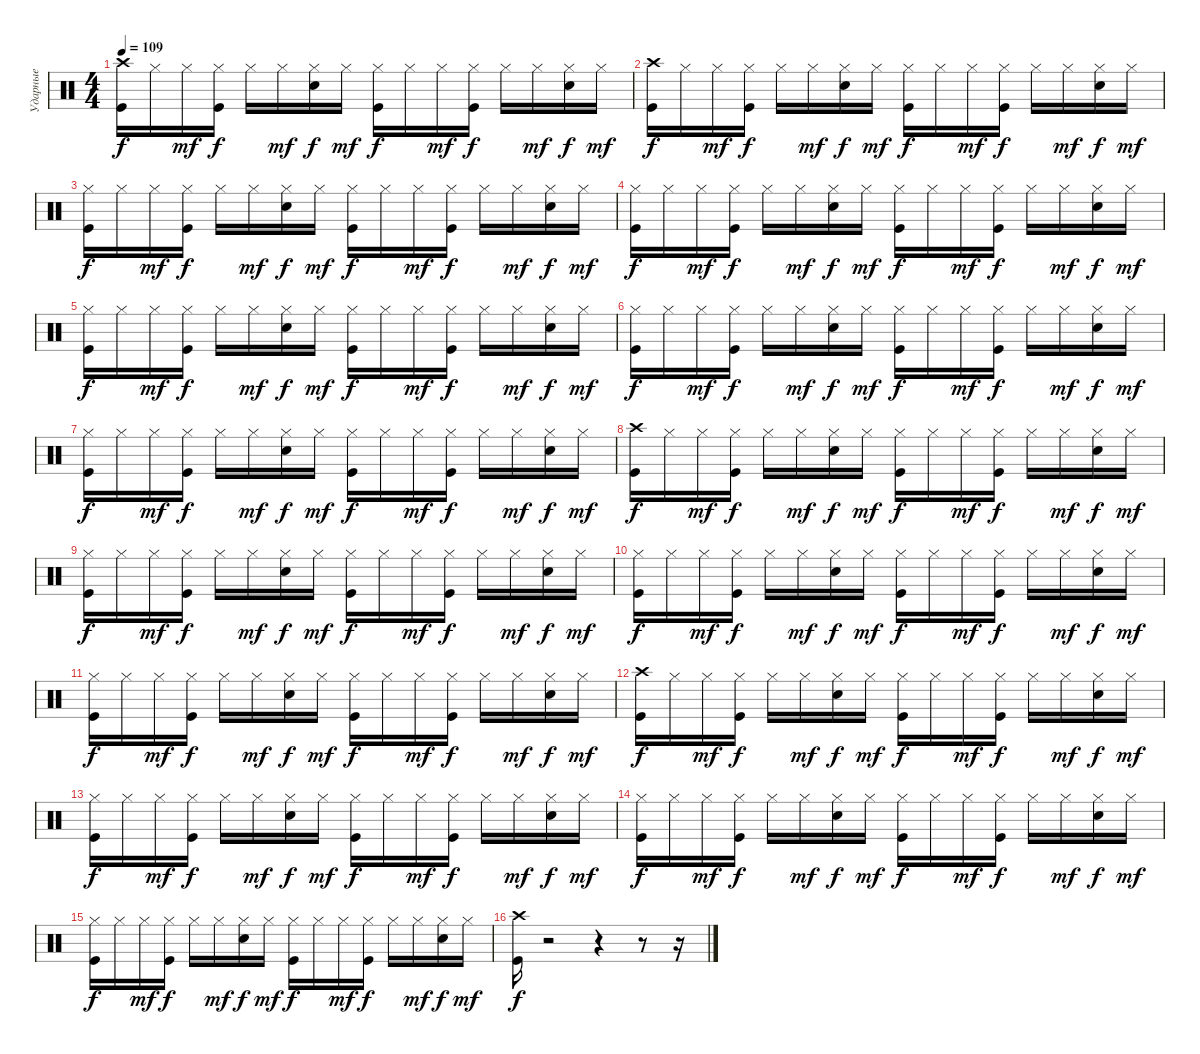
\track ("Ударные" "Ударные") {instrument percussion}
\staff {score}
\articulation defaults
\ts (4 4)
\tempo 109
\clef neutral
\ks c
("Kick (hit)" "Crash high (hit)").16{dy f} "Hi-Hat (closed)".16 "Hi-Hat (closed)".16{dy mf} ("Kick (hit)" "Hi-Hat (closed)").16{dy f} "Hi-Hat (closed)".16 "Hi-Hat (closed)".16{dy mf} ("Electric Snare (hit)" "Hi-Hat (closed)").16{dy f} "Hi-Hat (closed)".16{dy mf} ("Hi-Hat (closed)" "Kick (hit)").16{dy f} "Hi-Hat (closed)".16 "Hi-Hat (closed)".16{dy mf} ("Kick (hit)" "Hi-Hat (closed)").16{dy f} "Hi-Hat (closed)".16 "Hi-Hat (closed)".16{dy mf} ("Hi-Hat (closed)" "Electric Snare (hit)").16{dy f} "Hi-Hat (closed)".16{dy mf} |
("Kick (hit)" "Crash high (hit)").16{dy f} "Hi-Hat (closed)".16 "Hi-Hat (closed)".16{dy mf} ("Kick (hit)" "Hi-Hat (closed)").16{dy f} "Hi-Hat (closed)".16 "Hi-Hat (closed)".16{dy mf} ("Electric Snare (hit)" "Hi-Hat (closed)").16{dy f} "Hi-Hat (closed)".16{dy mf} ("Kick (hit)" "Hi-Hat (closed)").16{dy f} "Hi-Hat (closed)".16 "Hi-Hat (closed)".16{dy mf} ("Kick (hit)" "Hi-Hat (closed)").16{dy f} "Hi-Hat (closed)".16 "Hi-Hat (closed)".16{dy mf} ("Electric Snare (hit)" "Hi-Hat (closed)").16{dy f} "Hi-Hat (closed)".16{dy mf} |
("Kick (hit)" "Hi-Hat (closed)").16{dy f} "Hi-Hat (closed)".16 "Hi-Hat (closed)".16{dy mf} ("Hi-Hat (closed)" "Kick (hit)").16{dy f} "Hi-Hat (closed)".16 "Hi-Hat (closed)".16{dy mf} ("Electric Snare (hit)" "Hi-Hat (closed)").16{dy f} "Hi-Hat (closed)".16{dy mf} ("Kick (hit)" "Hi-Hat (closed)").16{dy f} "Hi-Hat (closed)".16 "Hi-Hat (closed)".16{dy mf} ("Kick (hit)" "Hi-Hat (closed)").16{dy f} "Hi-Hat (closed)".16 "Hi-Hat (closed)".16{dy mf} ("Electric Snare (hit)" "Hi-Hat (closed)").16{dy f} "Hi-Hat (closed)".16{dy mf} |
("Kick (hit)" "Hi-Hat (closed)").16{dy f} "Hi-Hat (closed)".16 "Hi-Hat (closed)".16{dy mf} ("Hi-Hat (closed)" "Kick (hit)").16{dy f} "Hi-Hat (closed)".16 "Hi-Hat (closed)".16{dy mf} ("Hi-Hat (closed)" "Electric Snare (hit)").16{dy f} "Hi-Hat (closed)".16{dy mf} ("Hi-Hat (closed)" "Kick (hit)").16{dy f} "Hi-Hat (closed)".16 "Hi-Hat (closed)".16{dy mf} ("Hi-Hat (closed)" "Kick (hit)").16{dy f} "Hi-Hat (closed)".16 "Hi-Hat (closed)".16{dy mf} ("Electric Snare (hit)" "Hi-Hat (closed)").16{dy f} "Hi-Hat (closed)".16{dy mf} |
("Kick (hit)" "Hi-Hat (closed)").16{dy f} "Hi-Hat (closed)".16 "Hi-Hat (closed)".16{dy mf} ("Kick (hit)" "Hi-Hat (closed)").16{dy f} "Hi-Hat (closed)".16 "Hi-Hat (closed)".16{dy mf} ("Hi-Hat (closed)" "Electric Snare (hit)").16{dy f} "Hi-Hat (closed)".16{dy mf} ("Kick (hit)" "Hi-Hat (closed)").16{dy f} "Hi-Hat (closed)".16 "Hi-Hat (closed)".16{dy mf} ("Kick (hit)" "Hi-Hat (closed)").16{dy f} "Hi-Hat (closed)".16 "Hi-Hat (closed)".16{dy mf} ("Electric Snare (hit)" "Hi-Hat (closed)").16{dy f} "Hi-Hat (closed)".16{dy mf} |
("Hi-Hat (closed)" "Kick (hit)").16{dy f} "Hi-Hat (closed)".16 "Hi-Hat (closed)".16{dy mf} ("Kick (hit)" "Hi-Hat (closed)").16{dy f} "Hi-Hat (closed)".16 "Hi-Hat (closed)".16{dy mf} ("Electric Snare (hit)" "Hi-Hat (closed)").16{dy f} "Hi-Hat (closed)".16{dy mf} ("Hi-Hat (closed)" "Kick (hit)").16{dy f} "Hi-Hat (closed)".16 "Hi-Hat (closed)".16{dy mf} ("Kick (hit)" "Hi-Hat (closed)").16{dy f} "Hi-Hat (closed)".16 "Hi-Hat (closed)".16{dy mf} ("Hi-Hat (closed)" "Electric Snare (hit)").16{dy f} "Hi-Hat (closed)".16{dy mf} |
("Hi-Hat (closed)" "Kick (hit)").16{dy f} "Hi-Hat (closed)".16 "Hi-Hat (closed)".16{dy mf} ("Kick (hit)" "Hi-Hat (closed)").16{dy f} "Hi-Hat (closed)".16 "Hi-Hat (closed)".16{dy mf} ("Hi-Hat (closed)" "Electric Snare (hit)").16{dy f} "Hi-Hat (closed)".16{dy mf} ("Kick (hit)" "Hi-Hat (closed)").16{dy f} "Hi-Hat (closed)".16 "Hi-Hat (closed)".16{dy mf} ("Kick (hit)" "Hi-Hat (closed)").16{dy f} "Hi-Hat (closed)".16 "Hi-Hat (closed)".16{dy mf} ("Electric Snare (hit)" "Hi-Hat (closed)").16{dy f} "Hi-Hat (closed)".16{dy mf} |
("Crash high (hit)" "Kick (hit)").16{dy f} "Hi-Hat (closed)".16 "Hi-Hat (closed)".16{dy mf} ("Kick (hit)" "Hi-Hat (closed)").16{dy f} "Hi-Hat (closed)".16 "Hi-Hat (closed)".16{dy mf} ("Hi-Hat (closed)" "Electric Snare (hit)").16{dy f} "Hi-Hat (closed)".16{dy mf} ("Kick (hit)" "Hi-Hat (closed)").16{dy f} "Hi-Hat (closed)".16 "Hi-Hat (closed)".16{dy mf} ("Hi-Hat (closed)" "Kick (hit)").16{dy f} "Hi-Hat (closed)".16 "Hi-Hat (closed)".16{dy mf} ("Electric Snare (hit)" "Hi-Hat (closed)").16{dy f} "Hi-Hat (closed)".16{dy mf} |
("Hi-Hat (closed)" "Kick (hit)").16{dy f} "Hi-Hat (closed)".16 "Hi-Hat (closed)".16{dy mf} ("Kick (hit)" "Hi-Hat (closed)").16{dy f} "Hi-Hat (closed)".16 "Hi-Hat (closed)".16{dy mf} ("Hi-Hat (closed)" "Electric Snare (hit)").16{dy f} "Hi-Hat (closed)".16{dy mf} ("Kick (hit)" "Hi-Hat (closed)").16{dy f} "Hi-Hat (closed)".16 "Hi-Hat (closed)".16{dy mf} ("Hi-Hat (closed)" "Kick (hit)").16{dy f} "Hi-Hat (closed)".16 "Hi-Hat (closed)".16{dy mf} ("Hi-Hat (closed)" "Electric Snare (hit)").16{dy f} "Hi-Hat (closed)".16{dy mf} |
("Hi-Hat (closed)" "Kick (hit)").16{dy f} "Hi-Hat (closed)".16 "Hi-Hat (closed)".16{dy mf} ("Kick (hit)" "Hi-Hat (closed)").16{dy f} "Hi-Hat (closed)".16 "Hi-Hat (closed)".16{dy mf} ("Hi-Hat (closed)" "Electric Snare (hit)").16{dy f} "Hi-Hat (closed)".16{dy mf} ("Hi-Hat (closed)" "Kick (hit)").16{dy f} "Hi-Hat (closed)".16 "Hi-Hat (closed)".16{dy mf} ("Kick (hit)" "Hi-Hat (closed)").16{dy f} "Hi-Hat (closed)".16 "Hi-Hat (closed)".16{dy mf} ("Hi-Hat (closed)" "Electric Snare (hit)").16{dy f} "Hi-Hat (closed)".16{dy mf} |
("Hi-Hat (closed)" "Kick (hit)").16{dy f} "Hi-Hat (closed)".16 "Hi-Hat (closed)".16{dy mf} ("Hi-Hat (closed)" "Kick (hit)").16{dy f} "Hi-Hat (closed)".16 "Hi-Hat (closed)".16{dy mf} ("Hi-Hat (closed)" "Electric Snare (hit)").16{dy f} "Hi-Hat (closed)".16{dy mf} ("Hi-Hat (closed)" "Kick (hit)").16{dy f} "Hi-Hat (closed)".16 "Hi-Hat (closed)".16{dy mf} ("Kick (hit)" "Hi-Hat (closed)").16{dy f} "Hi-Hat (closed)".16 "Hi-Hat (closed)".16{dy mf} ("Hi-Hat (closed)" "Electric Snare (hit)").16{dy f} "Hi-Hat (closed)".16{dy mf} |
("Crash high (hit)" "Kick (hit)").16{dy f} "Hi-Hat (closed)".16 "Hi-Hat (closed)".16{dy mf} ("Hi-Hat (closed)" "Kick (hit)").16{dy f} "Hi-Hat (closed)".16 "Hi-Hat (closed)".16{dy mf} ("Electric Snare (hit)" "Hi-Hat (closed)").16{dy f} "Hi-Hat (closed)".16{dy mf} ("Hi-Hat (closed)" "Kick (hit)").16{dy f} "Hi-Hat (closed)".16 "Hi-Hat (closed)".16{dy mf} ("Hi-Hat (closed)" "Kick (hit)").16{dy f} "Hi-Hat (closed)".16 "Hi-Hat (closed)".16{dy mf} ("Electric Snare (hit)" "Hi-Hat (closed)").16{dy f} "Hi-Hat (closed)".16{dy mf} |
("Hi-Hat (closed)" "Kick (hit)").16{dy f} "Hi-Hat (closed)".16 "Hi-Hat (closed)".16{dy mf} ("Kick (hit)" "Hi-Hat (closed)").16{dy f} "Hi-Hat (closed)".16 "Hi-Hat (closed)".16{dy mf} ("Hi-Hat (closed)" "Electric Snare (hit)").16{dy f} "Hi-Hat (closed)".16{dy mf} ("Kick (hit)" "Hi-Hat (closed)").16{dy f} "Hi-Hat (closed)".16 "Hi-Hat (closed)".16{dy mf} ("Hi-Hat (closed)" "Kick (hit)").16{dy f} "Hi-Hat (closed)".16 "Hi-Hat (closed)".16{dy mf} ("Hi-Hat (closed)" "Electric Snare (hit)").16{dy f} "Hi-Hat (closed)".16{dy mf} |
("Kick (hit)" "Hi-Hat (closed)").16{dy f} "Hi-Hat (closed)".16 "Hi-Hat (closed)".16{dy mf} ("Kick (hit)" "Hi-Hat (closed)").16{dy f} "Hi-Hat (closed)".16 "Hi-Hat (closed)".16{dy mf} ("Hi-Hat (closed)" "Electric Snare (hit)").16{dy f} "Hi-Hat (closed)".16{dy mf} ("Hi-Hat (closed)" "Kick (hit)").16{dy f} "Hi-Hat (closed)".16 "Hi-Hat (closed)".16{dy mf} ("Hi-Hat (closed)" "Kick (hit)").16{dy f} "Hi-Hat (closed)".16 "Hi-Hat (closed)".16{dy mf} ("Hi-Hat (closed)" "Electric Snare (hit)").16{dy f} "Hi-Hat (closed)".16{dy mf} |
("Kick (hit)" "Hi-Hat (closed)").16{dy f} "Hi-Hat (closed)".16 "Hi-Hat (closed)".16{dy mf} ("Kick (hit)" "Hi-Hat (closed)").16{dy f} "Hi-Hat (closed)".16 "Hi-Hat (closed)".16{dy mf} ("Hi-Hat (closed)" "Electric Snare (hit)").16{dy f} "Hi-Hat (closed)".16{dy mf} ("Hi-Hat (closed)" "Kick (hit)").16{dy f} "Hi-Hat (closed)".16 "Hi-Hat (closed)".16{dy mf} ("Hi-Hat (closed)" "Kick (hit)").16{dy f} "Hi-Hat (closed)".16 "Hi-Hat (closed)".16{dy mf} ("Electric Snare (hit)" "Hi-Hat (closed)").16{dy f} "Hi-Hat (closed)".16{dy mf} |
("Crash high (hit)" "Kick (hit)").16{dy f} r.2 r.4 r.8 r.16
